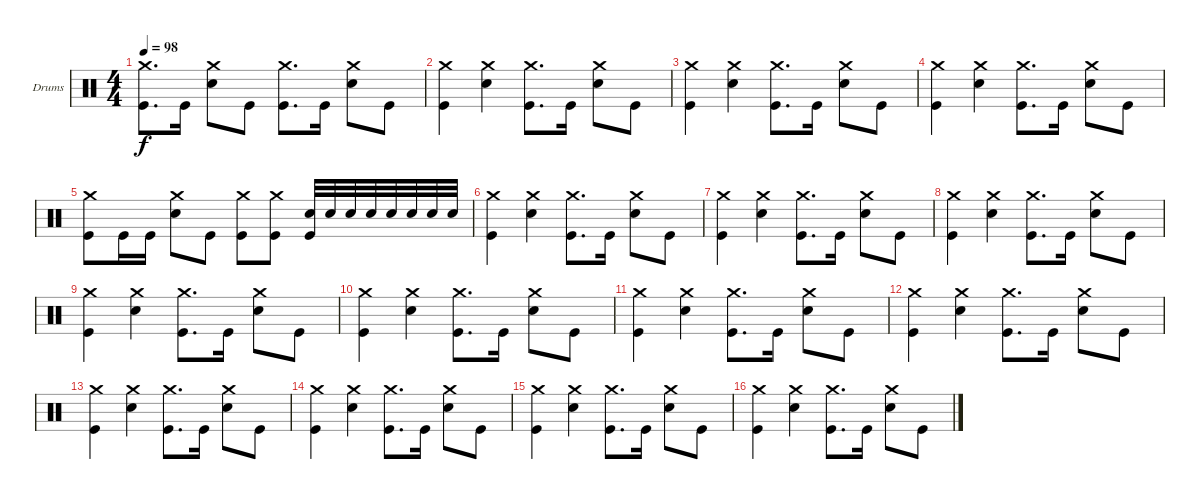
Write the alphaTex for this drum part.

\bracketExtendMode groupsimilarinstruments
\firstSystemTrackNameOrientation horizontal
\otherSystemsTrackNameOrientation horizontal
\track ("Drumkit" "Drums") {instrument percussion}
\staff {score}
\articulation defaults
\ts (4 4)
\tempo 98
\clef neutral
\ks c
("Crash medium (hit)" "Kick (hit)").8{d dy f} "Kick (hit)".16 ("Crash medium (hit)" "Snare (hit) 2").8 "Kick (hit)".8 ("Crash medium (hit)" "Kick (hit)").8{d} "Kick (hit)".16 ("Crash medium (hit)" "Snare (hit) 2").8 "Kick (hit)".8 |
("Crash medium (hit)" "Kick (hit)").4 ("Crash medium (hit)" "Snare (hit) 2").4 ("Crash medium (hit)" "Kick (hit)").8{d} "Kick (hit)".16 ("Crash medium (hit)" "Snare (hit) 2").8 "Kick (hit)".8 |
("Crash medium (hit)" "Kick (hit)").4 ("Crash medium (hit)" "Snare (hit) 2").4 ("Crash medium (hit)" "Kick (hit)").8{d} "Kick (hit)".16 ("Crash medium (hit)" "Snare (hit) 2").8 "Kick (hit)".8 |
("Crash medium (hit)" "Kick (hit)").4 ("Crash medium (hit)" "Snare (hit) 2").4 ("Crash medium (hit)" "Kick (hit)").8{d} "Kick (hit)".16 ("Crash medium (hit)" "Snare (hit) 2").8 "Kick (hit)".8 |
("Crash medium (hit)" "Kick (hit)").8 "Kick (hit)".16 "Kick (hit)".16 ("Crash medium (hit)" "Snare (hit) 2").8 "Kick (hit)".8 ("Crash medium (hit)" "Kick (hit)").8 ("Crash medium (hit)" "Kick (hit)").8 ("Snare (hit) 2" "Kick (hit)").32 "Snare (hit) 2".32 "Snare (hit) 2".32 "Snare (hit) 2".32 "Snare (hit) 2".32 "Snare (hit) 2".32 "Snare (hit) 2".32 "Snare (hit) 2".32 |
("Crash medium (hit)" "Kick (hit)").4 ("Crash medium (hit)" "Snare (hit) 2").4 ("Crash medium (hit)" "Kick (hit)").8{d} "Kick (hit)".16 ("Crash medium (hit)" "Snare (hit) 2").8 "Kick (hit)".8 |
("Crash medium (hit)" "Kick (hit)").4 ("Crash medium (hit)" "Snare (hit) 2").4 ("Crash medium (hit)" "Kick (hit)").8{d} "Kick (hit)".16 ("Crash medium (hit)" "Snare (hit) 2").8 "Kick (hit)".8 |
("Crash medium (hit)" "Kick (hit)").4 ("Crash medium (hit)" "Snare (hit) 2").4 ("Crash medium (hit)" "Kick (hit)").8{d} "Kick (hit)".16 ("Crash medium (hit)" "Snare (hit) 2").8 "Kick (hit)".8 |
("Crash medium (hit)" "Kick (hit)").4 ("Crash medium (hit)" "Snare (hit) 2").4 ("Crash medium (hit)" "Kick (hit)").8{d} "Kick (hit)".16 ("Crash medium (hit)" "Snare (hit) 2").8 "Kick (hit)".8 |
("Crash medium (hit)" "Kick (hit)").4 ("Crash medium (hit)" "Snare (hit) 2").4 ("Crash medium (hit)" "Kick (hit)").8{d} "Kick (hit)".16 ("Crash medium (hit)" "Snare (hit) 2").8 "Kick (hit)".8 |
("Crash medium (hit)" "Kick (hit)").4 ("Crash medium (hit)" "Snare (hit) 2").4 ("Crash medium (hit)" "Kick (hit)").8{d} "Kick (hit)".16 ("Crash medium (hit)" "Snare (hit) 2").8 "Kick (hit)".8 |
("Crash medium (hit)" "Kick (hit)").4 ("Crash medium (hit)" "Snare (hit) 2").4 ("Crash medium (hit)" "Kick (hit)").8{d} "Kick (hit)".16 ("Crash medium (hit)" "Snare (hit) 2").8 "Kick (hit)".8 |
("Crash medium (hit)" "Kick (hit)").4 ("Crash medium (hit)" "Snare (hit) 2").4 ("Crash medium (hit)" "Kick (hit)").8{d} "Kick (hit)".16 ("Crash medium (hit)" "Snare (hit) 2").8 "Kick (hit)".8 |
("Crash medium (hit)" "Kick (hit)").4 ("Crash medium (hit)" "Snare (hit) 2").4 ("Crash medium (hit)" "Kick (hit)").8{d} "Kick (hit)".16 ("Crash medium (hit)" "Snare (hit) 2").8 "Kick (hit)".8 |
("Crash medium (hit)" "Kick (hit)").4 ("Crash medium (hit)" "Snare (hit) 2").4 ("Crash medium (hit)" "Kick (hit)").8{d} "Kick (hit)".16 ("Crash medium (hit)" "Snare (hit) 2").8 "Kick (hit)".8 |
("Crash medium (hit)" "Kick (hit)").4 ("Crash medium (hit)" "Snare (hit) 2").4 ("Crash medium (hit)" "Kick (hit)").8{d} "Kick (hit)".16 ("Crash medium (hit)" "Snare (hit) 2").8 "Kick (hit)".8
